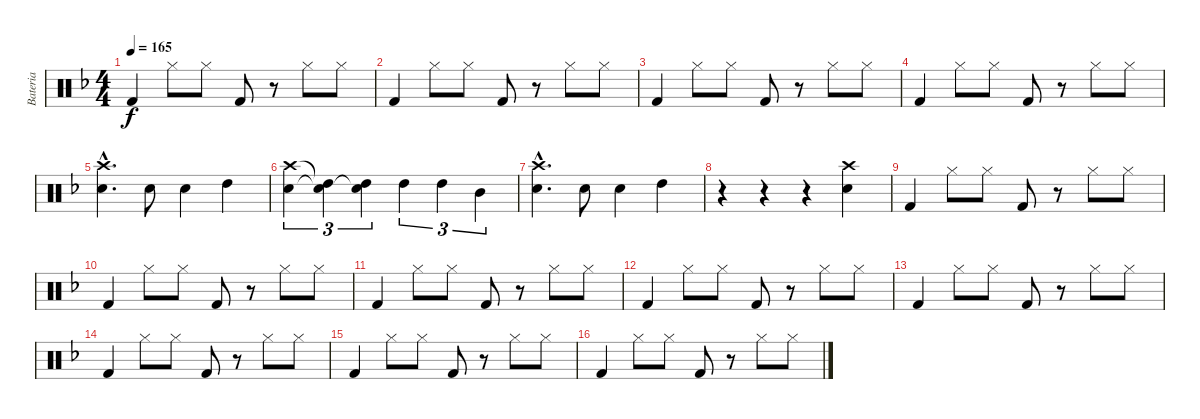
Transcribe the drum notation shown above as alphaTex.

\track ("Bateria" "Bateria") {instrument percussion}
\staff {score}
\articulation defaults
\ts (4 4)
\tempo 165
\clef neutral
\ks dminor "Kick (hit) 2".4{dy f} "Hi-Hat (closed)".8 "Hi-Hat (closed)".8 "Kick (hit) 2".8
r.8 "Hi-Hat (closed)".8 "Hi-Hat (closed)".8 |
"Kick (hit) 2".4 "Hi-Hat (closed)".8 "Hi-Hat (closed)".8 "Kick (hit) 2".8 r.8 "Hi-Hat (closed)".8 "Hi-Hat (closed)".8 |
"Kick (hit) 2".4 "Hi-Hat (closed)".8 "Hi-Hat (closed)".8 "Kick (hit) 2".8 r.8 "Hi-Hat (closed)".8 "Hi-Hat (closed)".8 |
"Kick (hit) 2".4 "Hi-Hat (closed)".8 "Hi-Hat (closed)".8 "Kick (hit) 2".8 r.8 "Hi-Hat (closed)".8 "Hi-Hat (closed)".8 |
("Crash high (hit)"{hac} "Snare (hit) 2"{hac}).4{d} "Snare (hit) 2".8 "Snare (hit) 2".4 "High Tom (hit)".4 |
("Crash high (hit)" "Snare (hit) 2").4{tu (3 2)} ("High Tom (hit)"{t} "Snare (hit)"{t}).4{tu (3 2)} ("High Tom (hit)" "Snare (hit)"{t}).4{tu (3 2)} "High Tom (hit)".4{tu (3 2)} "High Tom (hit)".4{tu (3 2)} "Mid Tom (hit)".4{tu (3 2)} |
("Crash high (hit)"{hac} "Snare (hit) 2"{hac}).4{d} "Snare (hit) 2".8 "Snare (hit) 2".4 "High Tom (hit)".4 |
r.4 r.4 r.4 ("Crash high (hit)" "Snare (hit) 2").4 |
"Kick (hit) 2".4 "Hi-Hat (closed)".8 "Hi-Hat (closed)".8 "Kick (hit) 2".8 r.8 "Hi-Hat (closed)".8 "Hi-Hat (closed)".8 |
"Kick (hit) 2".4 "Hi-Hat (closed)".8 "Hi-Hat (closed)".8 "Kick (hit) 2".8 r.8 "Hi-Hat (closed)".8 "Hi-Hat (closed)".8 |
"Kick (hit) 2".4 "Hi-Hat (closed)".8 "Hi-Hat (closed)".8 "Kick (hit) 2".8 r.8 "Hi-Hat (closed)".8 "Hi-Hat (closed)".8 |
"Kick (hit) 2".4 "Hi-Hat (closed)".8 "Hi-Hat (closed)".8 "Kick (hit) 2".8 r.8 "Hi-Hat (closed)".8 "Hi-Hat (closed)".8 |
"Kick (hit) 2".4 "Hi-Hat (closed)".8 "Hi-Hat (closed)".8 "Kick (hit) 2".8 r.8 "Hi-Hat (closed)".8 "Hi-Hat (closed)".8 |
"Kick (hit) 2".4 "Hi-Hat (closed)".8 "Hi-Hat (closed)".8 "Kick (hit) 2".8 r.8 "Hi-Hat (closed)".8 "Hi-Hat (closed)".8 |
"Kick (hit) 2".4 "Hi-Hat (closed)".8 "Hi-Hat (closed)".8 "Kick (hit) 2".8 r.8 "Hi-Hat (closed)".8 "Hi-Hat (closed)".8 |
"Kick (hit) 2".4 "Hi-Hat (closed)".8 "Hi-Hat (closed)".8 "Kick (hit) 2".8 r.8 "Hi-Hat (closed)".8 "Hi-Hat (closed)".8
